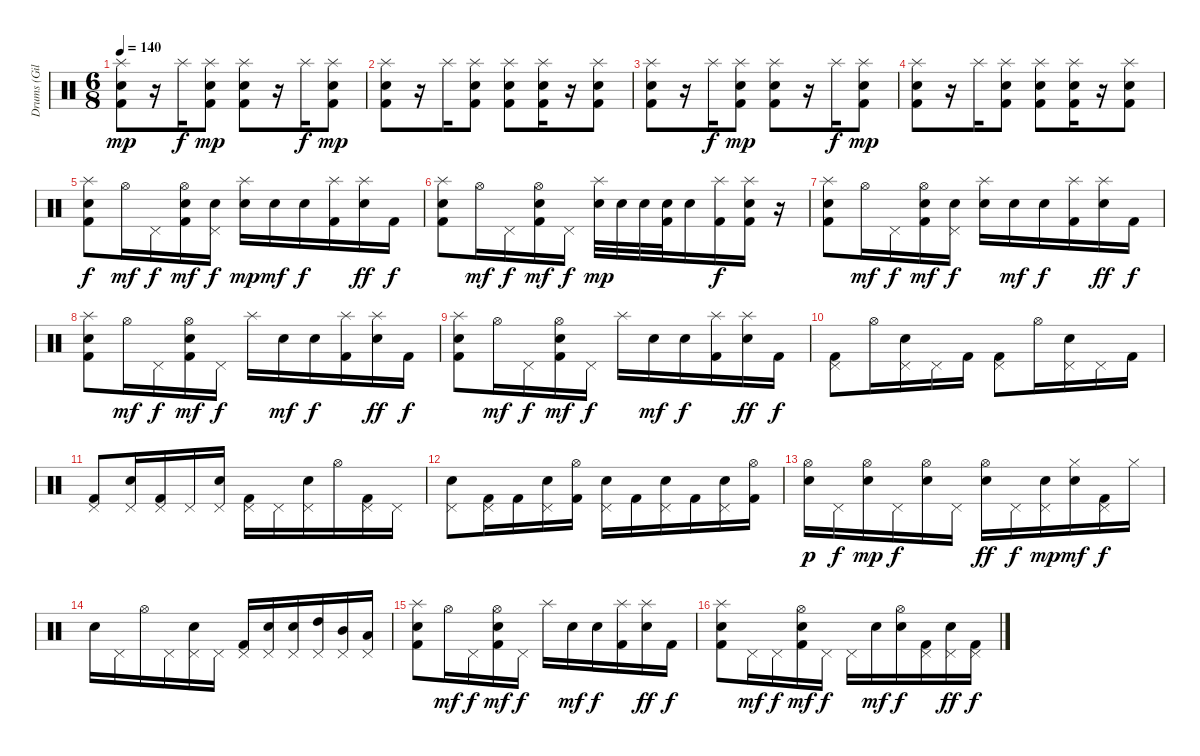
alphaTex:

\track ("Drums (Giles)" "Drums (Gil") {instrument percussion}
\staff {score}
\articulation defaults
\ts (6 8)
\tempo 140
\clef neutral
\ks c
("Splash (hit)" "Electric Snare (hit)" "Kick (hit) 2").8{dy mp} r.16 "Splash (hit)".16{dy f} ("Splash (hit)" "Electric Snare (hit)" "Kick (hit) 2").8{dy mp} ("Splash (hit)" "Electric Snare (hit)" "Kick (hit) 2").8 r.16 "Splash (hit)".16{dy f} ("Splash (hit)" "Electric Snare (hit)" "Kick (hit) 2").8{dy mp} |
("Splash (hit)" "Electric Snare (hit)" "Kick (hit) 2").8 r.16 "Splash (hit)".16 ("Splash (hit)" "Electric Snare (hit)" "Kick (hit) 2").8 ("Splash (hit)" "Electric Snare (hit)" "Kick (hit) 2").8 ("Splash (hit)" "Electric Snare (hit)" "Kick (hit) 2").16 r.16 ("Splash (hit)" "Electric Snare (hit)" "Kick (hit) 2").8 |
("Splash (hit)" "Electric Snare (hit)" "Kick (hit) 2").8 r.16 "Splash (hit)".16{dy f} ("Splash (hit)" "Electric Snare (hit)" "Kick (hit) 2").8{dy mp} ("Splash (hit)" "Electric Snare (hit)" "Kick (hit) 2").8 r.16 "Splash (hit)".16{dy f} ("Splash (hit)" "Electric Snare (hit)" "Kick (hit) 2").8{dy mp} |
("Splash (hit)" "Electric Snare (hit)" "Kick (hit) 2").8 r.16 "Splash (hit)".16 ("Splash (hit)" "Electric Snare (hit)" "Kick (hit) 2").8 ("Splash (hit)" "Electric Snare (hit)" "Kick (hit) 2").8 ("Splash (hit)" "Electric Snare (hit)" "Kick (hit) 2").16 r.16 ("Splash (hit)" "Electric Snare (hit)" "Kick (hit) 2").8 |
("Splash (hit)" "Electric Snare (hit)" "Kick (hit) 2").8{dy f} "Hi-Hat (open)".16{dy mf} "Pedal Hi-Hat (hit)".16{dy f} ("Hi-Hat (open)" "Electric Snare (hit)" "Kick (hit) 2").16{dy mf} ("Pedal Hi-Hat (hit)" "Electric Snare (hit)").16{dy f} ("Splash (hit)" "Electric Snare (hit)").16{dy mp} "Electric Snare (hit)".16{dy mf} "Electric Snare (hit)".16{dy f} ("Splash (hit)" "Kick (hit) 2").16 ("Splash (hit)" "Electric Snare (hit)").16{dy ff} "Kick (hit) 2".16{dy f} |
("Splash (hit)" "Electric Snare (hit)" "Kick (hit) 2").8 "Hi-Hat (open)".16{dy mf} "Pedal Hi-Hat (hit)".16{dy f} ("Hi-Hat (open)" "Electric Snare (hit)" "Kick (hit) 2").16{dy mf} "Pedal Hi-Hat (hit)".16{dy f} ("Splash (hit)" "Electric Snare (hit)").32{dy mp} "Electric Snare (hit)".32 "Electric Snare (hit)".32 ("Electric Snare (hit)" "Kick (hit) 2").32 "Electric Snare (hit)".16 ("Splash (hit)" "Kick (hit) 2").16{dy f} ("Splash (hit)" "Electric Snare (hit)" "Kick (hit) 2").16 r.16 |
("Splash (hit)" "Electric Snare (hit)" "Kick (hit) 2").8 "Hi-Hat (open)".16{dy mf} "Pedal Hi-Hat (hit)".16{dy f} ("Hi-Hat (open)" "Electric Snare (hit)" "Kick (hit) 2").16{dy mf} ("Pedal Hi-Hat (hit)" "Electric Snare (hit)").16{dy f} ("Splash (hit)" "Electric Snare (hit)").16 "Electric Snare (hit)".16{dy mf} "Electric Snare (hit)".16{dy f} ("Splash (hit)" "Kick (hit) 2").16 ("Splash (hit)" "Electric Snare (hit)").16{dy ff} "Kick (hit) 2".16{dy f} |
("Splash (hit)" "Electric Snare (hit)" "Kick (hit) 2").8 "Hi-Hat (open)".16{dy mf} "Pedal Hi-Hat (hit)".16{dy f} ("Hi-Hat (open)" "Electric Snare (hit)" "Kick (hit) 2").16{dy mf} "Pedal Hi-Hat (hit)".16{dy f} "Splash (hit)".16 "Electric Snare (hit)".16{dy mf} "Electric Snare (hit)".16{dy f} ("Splash (hit)" "Kick (hit) 2").16 ("Splash (hit)" "Electric Snare (hit)").16{dy ff} "Kick (hit) 2".16{dy f} |
("Splash (hit)" "Electric Snare (hit)" "Kick (hit) 2").8 "Hi-Hat (open)".16{dy mf} "Pedal Hi-Hat (hit)".16{dy f} ("Hi-Hat (open)" "Electric Snare (hit)" "Kick (hit) 2").16{dy mf} "Pedal Hi-Hat (hit)".16{dy f} "Splash (hit)".16 "Electric Snare (hit)".16{dy mf} "Electric Snare (hit)".16{dy f} ("Splash (hit)" "Kick (hit) 2").16 ("Splash (hit)" "Electric Snare (hit)").16{dy ff} "Kick (hit) 2".16{dy f} |
("Pedal Hi-Hat (hit)" "Kick (hit) 2").8 "Hi-Hat (open)".16 ("Pedal Hi-Hat (hit)" "Electric Snare (hit)").16 "Pedal Hi-Hat (hit)".16 "Kick (hit) 2".16 ("Pedal Hi-Hat (hit)" "Kick (hit) 2").8 "Hi-Hat (open)".16 ("Pedal Hi-Hat (hit)" "Electric Snare (hit)").16 "Pedal Hi-Hat (hit)".16 "Kick (hit) 2".16 |
("Pedal Hi-Hat (hit)" "Kick (hit) 2").8 ("Pedal Hi-Hat (hit)" "Electric Snare (hit)").16 ("Pedal Hi-Hat (hit)" "Kick (hit) 2").16 "Pedal Hi-Hat (hit)".16 ("Pedal Hi-Hat (hit)" "Electric Snare (hit)").16 ("Pedal Hi-Hat (hit)" "Kick (hit) 2").16 "Pedal Hi-Hat (hit)".16 ("Pedal Hi-Hat (hit)" "Electric Snare (hit)").16 "Hi-Hat (open)".16 ("Pedal Hi-Hat (hit)" "Kick (hit) 2").16 "Pedal Hi-Hat (hit)".16 |
("Pedal Hi-Hat (hit)" "Electric Snare (hit)").8 ("Pedal Hi-Hat (hit)" "Kick (hit) 2").16 "Kick (hit) 2".16 ("Pedal Hi-Hat (hit)" "Electric Snare (hit)").16 ("Hi-Hat (open)" "Kick (hit) 2").16 ("Pedal Hi-Hat (hit)" "Electric Snare (hit)").16 "Kick (hit) 2".16 ("Pedal Hi-Hat (hit)" "Electric Snare (hit)").16 "Kick (hit) 2".16 ("Pedal Hi-Hat (hit)" "Electric Snare (hit)").16 ("Hi-Hat (open)" "Kick (hit) 2").16 |
("Hi-Hat (open)" "Electric Snare (hit)").16{dy p} "Pedal Hi-Hat (hit)".16{dy f} ("Hi-Hat (open)" "Electric Snare (hit)").16{dy mp} "Pedal Hi-Hat (hit)".16{dy f} ("Hi-Hat (open)" "Electric Snare (hit)").16 "Pedal Hi-Hat (hit)".16 ("Hi-Hat (open)" "Electric Snare (hit)").16{dy ff} "Pedal Hi-Hat (hit)".16{dy f} ("Pedal Hi-Hat (hit)" "Electric Snare (hit)").16{dy mp} ("Hi-Hat (closed)" "Electric Snare (hit)").16{dy mf} ("Pedal Hi-Hat (hit)" "Kick (hit) 2").16{dy f} "Hi-Hat (closed)".16 |
"Electric Snare (hit)".16 "Pedal Hi-Hat (hit)".16 "Hi-Hat (open)".16 "Pedal Hi-Hat (hit)".16 ("Pedal Hi-Hat (hit)" "Electric Snare (hit)").16 "Pedal Hi-Hat (hit)".16 ("Pedal Hi-Hat (hit)" "Kick (hit) 2").16 ("Pedal Hi-Hat (hit)" "Electric Snare (hit)").16 ("Pedal Hi-Hat (hit)" "Electric Snare (hit)").16 ("Pedal Hi-Hat (hit)" "High Tom (hit)").16 ("Pedal Hi-Hat (hit)" "Mid Tom (hit)").16 ("Pedal Hi-Hat (hit)" "Low Tom (hit)").16 |
("Splash (hit)" "Electric Snare (hit)" "Kick (hit) 2").8 "Hi-Hat (open)".16{dy mf} "Pedal Hi-Hat (hit)".16{dy f} ("Hi-Hat (open)" "Electric Snare (hit)" "Kick (hit) 2").16{dy mf} "Pedal Hi-Hat (hit)".16{dy f} "Splash (hit)".16 "Electric Snare (hit)".16{dy mf} "Electric Snare (hit)".16{dy f} ("Splash (hit)" "Kick (hit) 2").16 ("Splash (hit)" "Electric Snare (hit)").16{dy ff} "Kick (hit) 2".16{dy f} |
("Splash (hit)" "Electric Snare (hit)" "Kick (hit) 2").8 "Pedal Hi-Hat (hit)".16{dy mf} "Pedal Hi-Hat (hit)".16{dy f} ("Hi-Hat (open)" "Electric Snare (hit)" "Kick (hit) 2").16{dy mf} "Pedal Hi-Hat (hit)".16{dy f} "Pedal Hi-Hat (hit)".16 "Electric Snare (hit)".16{dy mf} ("Hi-Hat (open)" "Electric Snare (hit)").16{dy f} ("Pedal Hi-Hat (hit)" "Kick (hit) 2").16 ("Pedal Hi-Hat (hit)" "Electric Snare (hit)").16{dy ff} ("Pedal Hi-Hat (hit)" "Kick (hit) 2").16{dy f}
